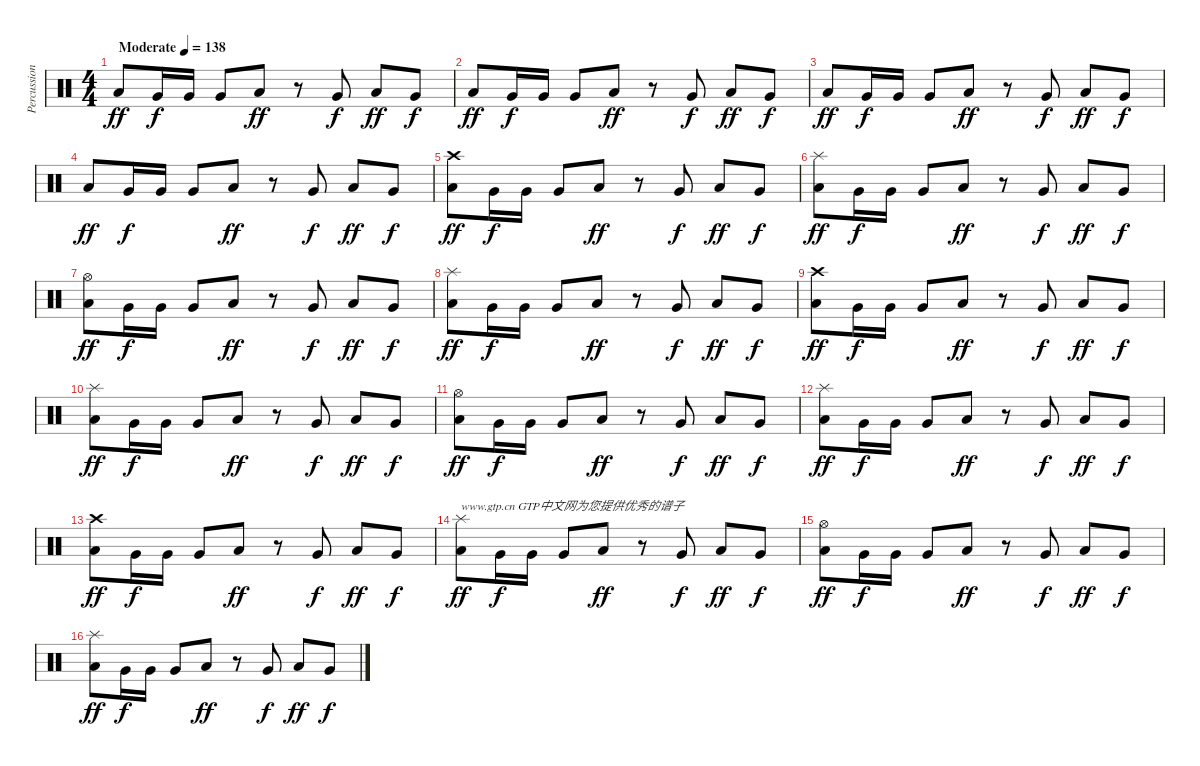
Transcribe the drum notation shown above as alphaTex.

\track ("Percussion" "Percussion") {instrument percussion}
\staff {score}
\articulation defaults
\ts (4 4)
\tempo (138 "Moderate")
\clef neutral
\ks c "Low Tom (hit)".8{dy ff} "Very Low Tom (hit)".16{dy f} "Very Low Tom (hit)".16 "Very Low Tom (hit)".8 "Low Tom (hit)".8{dy ff}
r.8 "Very Low Tom (hit)".8{dy f} "Low Tom (hit)".8{dy ff} "Very Low Tom (hit)".8{dy f} |
"Low Tom (hit)".8{dy ff} "Very Low Tom (hit)".16{dy f} "Very Low Tom (hit)".16 "Very Low Tom (hit)".8 "Low Tom (hit)".8{dy ff} r.8 "Very Low Tom (hit)".8{dy f} "Low Tom (hit)".8{dy ff} "Very Low Tom (hit)".8{dy f} |
"Low Tom (hit)".8{dy ff} "Very Low Tom (hit)".16{dy f} "Very Low Tom (hit)".16 "Very Low Tom (hit)".8 "Low Tom (hit)".8{dy ff} r.8 "Very Low Tom (hit)".8{dy f} "Low Tom (hit)".8{dy ff} "Very Low Tom (hit)".8{dy f} |
"Low Tom (hit)".8{dy ff} "Very Low Tom (hit)".16{dy f} "Very Low Tom (hit)".16 "Very Low Tom (hit)".8 "Low Tom (hit)".8{dy ff} r.8 "Very Low Tom (hit)".8{dy f} "Low Tom (hit)".8{dy ff} "Very Low Tom (hit)".8{dy f} |
("Crash high (hit)" "Low Tom (hit)").8{dy ff} "Very Low Tom (hit)".16{dy f} "Very Low Tom (hit)".16 "Very Low Tom (hit)".8 "Low Tom (hit)".8{dy ff} r.8 "Very Low Tom (hit)".8{dy f} "Low Tom (hit)".8{dy ff} "Very Low Tom (hit)".8{dy f} |
("Splash (hit)" "Low Tom (hit)").8{dy ff} "Very Low Tom (hit)".16{dy f} "Very Low Tom (hit)".16 "Very Low Tom (hit)".8 "Low Tom (hit)".8{dy ff} r.8 "Very Low Tom (hit)".8{dy f} "Low Tom (hit)".8{dy ff} "Very Low Tom (hit)".8{dy f} |
("Hi-Hat (open)" "Low Tom (hit)").8{dy ff} "Very Low Tom (hit)".16{dy f} "Very Low Tom (hit)".16 "Very Low Tom (hit)".8 "Low Tom (hit)".8{dy ff} r.8 "Very Low Tom (hit)".8{dy f} "Low Tom (hit)".8{dy ff} "Very Low Tom (hit)".8{dy f} |
("Splash (hit)" "Low Tom (hit)").8{dy ff} "Very Low Tom (hit)".16{dy f} "Very Low Tom (hit)".16 "Very Low Tom (hit)".8 "Low Tom (hit)".8{dy ff} r.8 "Very Low Tom (hit)".8{dy f} "Low Tom (hit)".8{dy ff} "Very Low Tom (hit)".8{dy f} |
("Crash high (hit)" "Low Tom (hit)").8{dy ff} "Very Low Tom (hit)".16{dy f} "Very Low Tom (hit)".16 "Very Low Tom (hit)".8 "Low Tom (hit)".8{dy ff} r.8 "Very Low Tom (hit)".8{dy f} "Low Tom (hit)".8{dy ff} "Very Low Tom (hit)".8{dy f} |
("Splash (hit)" "Low Tom (hit)").8{dy ff} "Very Low Tom (hit)".16{dy f} "Very Low Tom (hit)".16 "Very Low Tom (hit)".8 "Low Tom (hit)".8{dy ff} r.8 "Very Low Tom (hit)".8{dy f} "Low Tom (hit)".8{dy ff} "Very Low Tom (hit)".8{dy f} |
("Hi-Hat (open)" "Low Tom (hit)").8{dy ff} "Very Low Tom (hit)".16{dy f} "Very Low Tom (hit)".16 "Very Low Tom (hit)".8 "Low Tom (hit)".8{dy ff} r.8 "Very Low Tom (hit)".8{dy f} "Low Tom (hit)".8{dy ff} "Very Low Tom (hit)".8{dy f} |
("Splash (hit)" "Low Tom (hit)").8{dy ff} "Very Low Tom (hit)".16{dy f} "Very Low Tom (hit)".16 "Very Low Tom (hit)".8 "Low Tom (hit)".8{dy ff} r.8 "Very Low Tom (hit)".8{dy f} "Low Tom (hit)".8{dy ff} "Very Low Tom (hit)".8{dy f} |
("Crash high (hit)" "Low Tom (hit)").8{dy ff} "Very Low Tom (hit)".16{dy f} "Very Low Tom (hit)".16 "Very Low Tom (hit)".8 "Low Tom (hit)".8{dy ff} r.8 "Very Low Tom (hit)".8{dy f} "Low Tom (hit)".8{dy ff} "Very Low Tom (hit)".8{dy f} |
("Splash (hit)" "Low Tom (hit)").8{txt "www.gtp.cn GTP中文网为您提供优秀的谱子" dy ff} "Very Low Tom (hit)".16{dy f} "Very Low Tom (hit)".16 "Very Low Tom (hit)".8 "Low Tom (hit)".8{dy ff} r.8 "Very Low Tom (hit)".8{dy f} "Low Tom (hit)".8{dy ff} "Very Low Tom (hit)".8{dy f} |
("Hi-Hat (open)" "Low Tom (hit)").8{dy ff} "Very Low Tom (hit)".16{dy f} "Very Low Tom (hit)".16 "Very Low Tom (hit)".8 "Low Tom (hit)".8{dy ff} r.8 "Very Low Tom (hit)".8{dy f} "Low Tom (hit)".8{dy ff} "Very Low Tom (hit)".8{dy f} |
("Splash (hit)" "Low Tom (hit)").8{dy ff} "Very Low Tom (hit)".16{dy f} "Very Low Tom (hit)".16 "Very Low Tom (hit)".8 "Low Tom (hit)".8{dy ff} r.8 "Very Low Tom (hit)".8{dy f} "Low Tom (hit)".8{dy ff} "Very Low Tom (hit)".8{dy f}
